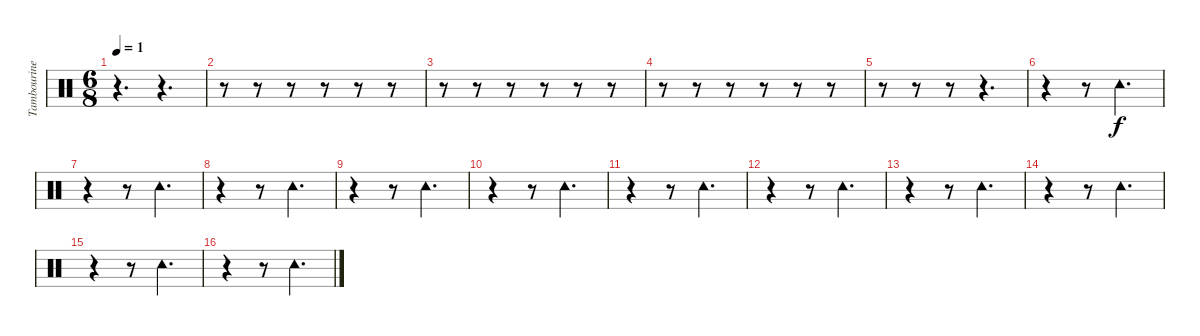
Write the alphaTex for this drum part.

\track ("Tambourine" "Tambourine") {instrument percussion}
\staff {score}
\articulation defaults
\ts (6 8)
\tempo 1
\clef neutral
\ks c
r.4{d dy f} r.4{d} |
r.8 r.8 r.8 r.8 r.8 r.8 |
r.8 r.8 r.8 r.8 r.8 r.8 |
r.8 r.8 r.8 r.8 r.8 r.8 |
r.8 r.8 r.8 r.4{d} |
r.4 r.8 "Tambourine (hit)".4{d} |
r.4 r.8 "Tambourine (hit)".4{d} |
r.4 r.8 "Tambourine (hit)".4{d} |
r.4 r.8 "Tambourine (hit)".4{d} |
r.4 r.8 "Tambourine (hit)".4{d} |
r.4 r.8 "Tambourine (hit)".4{d} |
r.4 r.8 "Tambourine (hit)".4{d} |
r.4 r.8 "Tambourine (hit)".4{d} |
r.4 r.8 "Tambourine (hit)".4{d} |
r.4 r.8 "Tambourine (hit)".4{d} |
r.4 r.8 "Tambourine (hit)".4{d}
